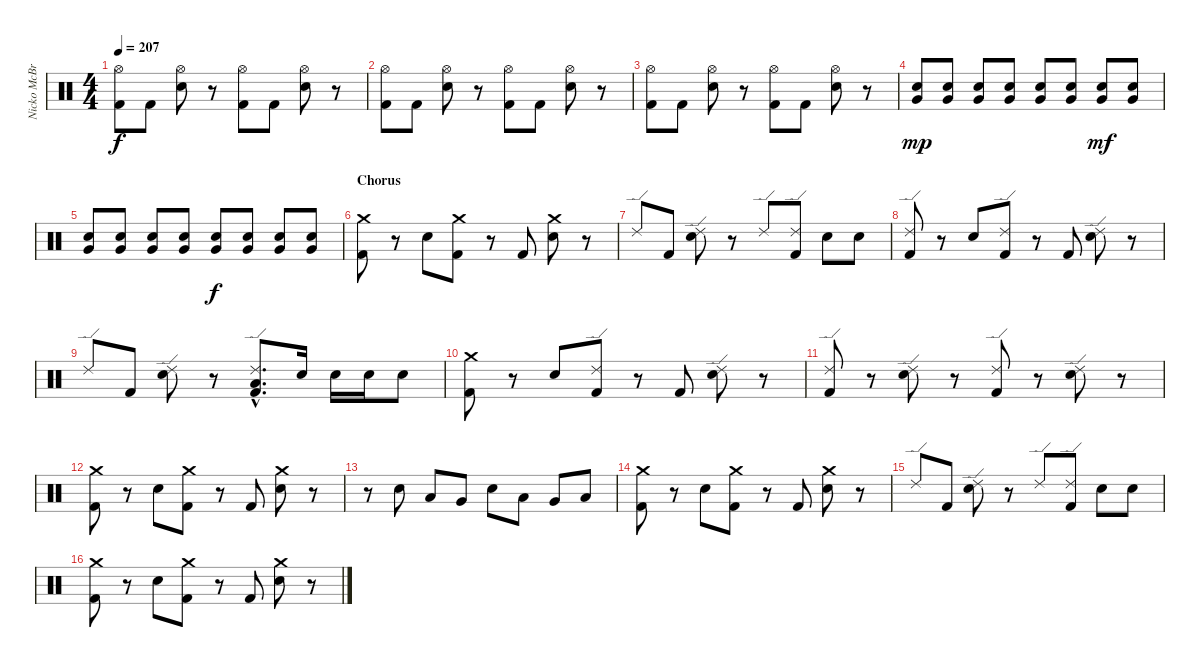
\track ("Nicko McBrain" "Nicko McBr") {instrument percussion}
\staff {score}
\articulation defaults
\ts (4 4)
\tempo 207
\clef neutral
\ks c
("Hi-Hat (open)" "Kick (hit) 2").8{dy f} "Kick (hit) 2".8 ("Hi-Hat (open)" "Snare (hit) 2").8 r.8 ("Hi-Hat (open)" "Kick (hit) 2").8 "Kick (hit) 2".8 ("Hi-Hat (open)" "Snare (hit) 2").8 r.8 |
("Hi-Hat (open)" "Kick (hit) 2").8 "Kick (hit) 2".8 ("Hi-Hat (open)" "Snare (hit) 2").8 r.8 ("Hi-Hat (open)" "Kick (hit) 2").8 "Kick (hit) 2".8 ("Hi-Hat (open)" "Snare (hit) 2").8 r.8 |
("Hi-Hat (open)" "Kick (hit) 2").8 "Kick (hit) 2".8 ("Hi-Hat (open)" "Snare (hit) 2").8 r.8 ("Hi-Hat (open)" "Kick (hit) 2").8 "Kick (hit) 2".8 ("Hi-Hat (open)" "Snare (hit) 2").8 r.8 |
("Snare (hit) 2" "Very Low Tom (hit)").8{dy mp} ("Snare (hit) 2" "Very Low Tom (hit)").8 ("Snare (hit) 2" "Very Low Tom (hit)").8 ("Snare (hit) 2" "Very Low Tom (hit)").8 ("Snare (hit) 2" "Very Low Tom (hit)").8 ("Snare (hit) 2" "Very Low Tom (hit)").8 ("Snare (hit) 2" "Very Low Tom (hit)").8{dy mf} ("Snare (hit) 2" "Very Low Tom (hit)").8 |
("Snare (hit) 2" "Very Low Tom (hit)").8 ("Snare (hit) 2" "Very Low Tom (hit)").8 ("Snare (hit) 2" "Very Low Tom (hit)").8 ("Snare (hit) 2" "Very Low Tom (hit)").8 ("Snare (hit) 2" "Very Low Tom (hit)").8{dy f} ("Snare (hit) 2" "Very Low Tom (hit)").8 ("Snare (hit) 2" "Very Low Tom (hit)").8 ("Snare (hit) 2" "Very Low Tom (hit)").8 |
\section ("" "Chorus")
("Crash medium (hit)" "Kick (hit) 2").8 r.8 "Snare (hit) 2".8 ("Crash medium (hit)" "Kick (hit) 2").8 r.8 "Kick (hit) 2".8 ("Crash medium (hit)" "Snare (hit) 2").8 r.8 |
"Ride (edge) 2".8 "Kick (hit) 2".8 ("Ride (edge) 2" "Snare (hit) 2").8 r.8 "Ride (edge) 2".8 ("Ride (edge) 2" "Kick (hit) 2").8 "Snare (hit) 2".8 "Snare (hit) 2".8 |
("Ride (edge) 2" "Kick (hit) 2").8 r.8 "Snare (hit) 2".8 ("Ride (edge) 2" "Kick (hit) 2").8 r.8 "Kick (hit) 2".8 ("Ride (edge) 2" "Snare (hit) 2").8 r.8 |
"Ride (edge) 2".8 "Kick (hit) 2".8 ("Ride (edge) 2" "Snare (hit) 2").8 r.8 ("Ride (edge) 2"{hac} "Low Tom (hit)"{hac} "Kick (hit) 2"{hac}).8{d} "Snare (hit) 2".16 "Snare (hit) 2".16 "Snare (hit) 2".16 "Snare (hit) 2".8 |
("Crash medium (hit)" "Kick (hit) 2").8 r.8 "Snare (hit) 2".8 ("Ride (edge) 2" "Kick (hit) 2").8 r.8 "Kick (hit) 2".8 ("Ride (edge) 2" "Snare (hit) 2").8 r.8 |
("Ride (edge) 2" "Kick (hit) 2").8 r.8 ("Ride (edge) 2" "Snare (hit) 2").8 r.8 ("Ride (edge) 2" "Kick (hit) 2").8 r.8 ("Ride (edge) 2" "Snare (hit) 2").8 r.8 |
("Crash medium (hit)" "Kick (hit) 2").8 r.8 "Snare (hit) 2".8 ("Crash medium (hit)" "Kick (hit) 2").8 r.8 "Kick (hit) 2".8 ("Crash medium (hit)" "Snare (hit) 2").8 r.8 |
r.8 "Snare (hit) 2".8 "Low Tom (hit)".8 "Very Low Tom (hit)".8 "Snare (hit) 2".8 "Low Tom (hit)".8 "Very Low Tom (hit)".8 "Low Floor Tom (hit)".8 |
("Crash medium (hit)" "Kick (hit) 2").8 r.8 "Snare (hit) 2".8 ("Crash medium (hit)" "Kick (hit) 2").8 r.8 "Kick (hit) 2".8 ("Crash medium (hit)" "Snare (hit) 2").8 r.8 |
"Ride (edge) 2".8 "Kick (hit) 2".8 ("Ride (edge) 2" "Snare (hit) 2").8 r.8 "Ride (edge) 2".8 ("Ride (edge) 2" "Kick (hit) 2").8 "Snare (hit) 2".8 "Snare (hit) 2".8 |
("Crash medium (hit)" "Kick (hit) 2").8 r.8 "Snare (hit) 2".8 ("Crash medium (hit)" "Kick (hit) 2").8 r.8 "Kick (hit) 2".8 ("Crash medium (hit)" "Snare (hit) 2").8 r.8
